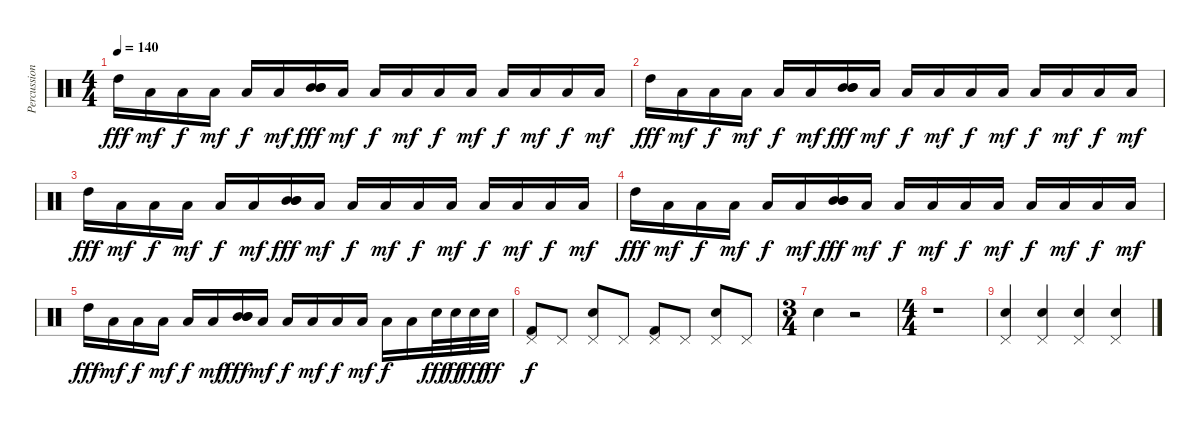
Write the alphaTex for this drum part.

\track ("Percussions" "Percussion") {instrument percussion}
\staff {score}
\articulation defaults
\ts (4 4)
\tempo 140
\clef neutral
\ks c "High Tom (hit)".16{dy fff} "Low Floor Tom (hit)".16{dy mf} "Low Floor Tom (hit)".16{dy f} "Low Floor Tom (hit)".16{dy mf} "Low Floor Tom (hit)".16{dy f} "Low Floor Tom (hit)".16{dy mf}
("Mid Tom (hit)" "Mid Tom (hit)" "Mid Tom (hit)").16{dy fff} "Low Floor Tom (hit)".16{dy mf} "Low Floor Tom (hit)".16{dy f} "Low Floor Tom (hit)".16{dy mf} "Low Floor Tom (hit)".16{dy f} "Low Floor Tom (hit)".16{dy mf} "Low Floor Tom (hit)".16{dy f} "Low Floor Tom (hit)".16{dy mf} "Low Floor Tom (hit)".16{dy f} "Low Floor Tom (hit)".16{dy mf} |
"High Tom (hit)".16{dy fff} "Low Floor Tom (hit)".16{dy mf} "Low Floor Tom (hit)".16{dy f} "Low Floor Tom (hit)".16{dy mf} "Low Floor Tom (hit)".16{dy f} "Low Floor Tom (hit)".16{dy mf} ("Mid Tom (hit)" "Mid Tom (hit)" "Mid Tom (hit)").16{dy fff} "Low Floor Tom (hit)".16{dy mf} "Low Floor Tom (hit)".16{dy f} "Low Floor Tom (hit)".16{dy mf} "Low Floor Tom (hit)".16{dy f} "Low Floor Tom (hit)".16{dy mf} "Low Floor Tom (hit)".16{dy f} "Low Floor Tom (hit)".16{dy mf} "Low Floor Tom (hit)".16{dy f} "Low Floor Tom (hit)".16{dy mf} |
"High Tom (hit)".16{dy fff} "Low Floor Tom (hit)".16{dy mf} "Low Floor Tom (hit)".16{dy f} "Low Floor Tom (hit)".16{dy mf} "Low Floor Tom (hit)".16{dy f} "Low Floor Tom (hit)".16{dy mf} ("Mid Tom (hit)" "Mid Tom (hit)" "Mid Tom (hit)").16{dy fff} "Low Floor Tom (hit)".16{dy mf} "Low Floor Tom (hit)".16{dy f} "Low Floor Tom (hit)".16{dy mf} "Low Floor Tom (hit)".16{dy f} "Low Floor Tom (hit)".16{dy mf} "Low Floor Tom (hit)".16{dy f} "Low Floor Tom (hit)".16{dy mf} "Low Floor Tom (hit)".16{dy f} "Low Floor Tom (hit)".16{dy mf} |
"High Tom (hit)".16{dy fff} "Low Floor Tom (hit)".16{dy mf} "Low Floor Tom (hit)".16{dy f} "Low Floor Tom (hit)".16{dy mf} "Low Floor Tom (hit)".16{dy f} "Low Floor Tom (hit)".16{dy mf} ("Mid Tom (hit)" "Mid Tom (hit)" "Mid Tom (hit)").16{dy fff} "Low Floor Tom (hit)".16{dy mf} "Low Floor Tom (hit)".16{dy f} "Low Floor Tom (hit)".16{dy mf} "Low Floor Tom (hit)".16{dy f} "Low Floor Tom (hit)".16{dy mf} "Low Floor Tom (hit)".16{dy f} "Low Floor Tom (hit)".16{dy mf} "Low Floor Tom (hit)".16{dy f} "Low Floor Tom (hit)".16{dy mf} |
"High Tom (hit)".16{dy fff} "Low Floor Tom (hit)".16{dy mf} "Low Floor Tom (hit)".16{dy f} "Low Floor Tom (hit)".16{dy mf} "Low Floor Tom (hit)".16{dy f} "Low Floor Tom (hit)".16{dy mf} ("Mid Tom (hit)" "Mid Tom (hit)" "Mid Tom (hit)").16{dy fff} "Low Floor Tom (hit)".16{dy mf} "Low Floor Tom (hit)".16{dy f} "Low Floor Tom (hit)".16{dy mf} "Low Floor Tom (hit)".16{dy f} "Low Floor Tom (hit)".16{dy mf} "Low Floor Tom (hit)".16{dy f} "Low Floor Tom (hit)".16 "Electric Snare (hit)".32{dy fff} "Electric Snare (hit)".32{dy ff} "Electric Snare (hit)".32{dy fff} "Electric Snare (hit)".32{dy ff} |
("Pedal Hi-Hat (hit)" "Kick (hit) 2").8{dy f} "Pedal Hi-Hat (hit)".8 ("Pedal Hi-Hat (hit)" "Electric Snare (hit)").8 "Pedal Hi-Hat (hit)".8 ("Pedal Hi-Hat (hit)" "Kick (hit) 2").8 "Pedal Hi-Hat (hit)".8 ("Pedal Hi-Hat (hit)" "Electric Snare (hit)").8 "Pedal Hi-Hat (hit)".8 |
\ts (3 4)
"Electric Snare (hit)".4 r.2 |
\ts (4 4)
r.1 |
("Pedal Hi-Hat (hit)" "Electric Snare (hit)").4 ("Pedal Hi-Hat (hit)" "Electric Snare (hit)").4 ("Pedal Hi-Hat (hit)" "Electric Snare (hit)").4 ("Pedal Hi-Hat (hit)" "Electric Snare (hit)").4
